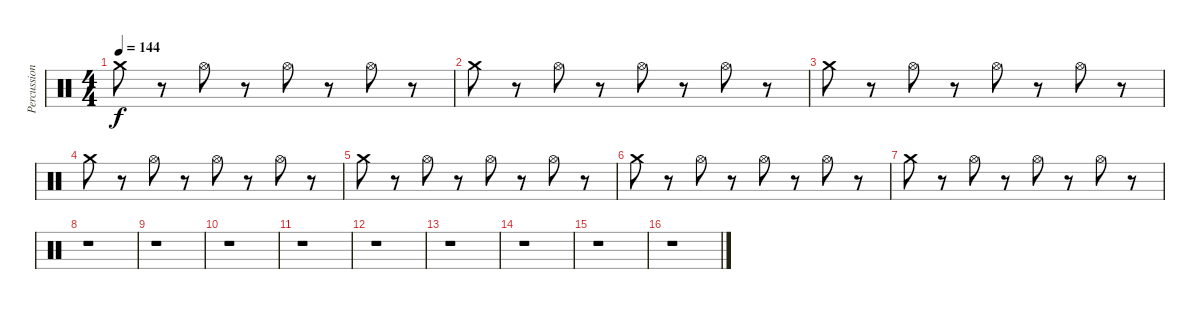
\track ("Percussions" "Percussion") {instrument percussion}
\staff {score}
\articulation defaults
\ts (4 4)
\tempo 144
\clef neutral
\ks c "Crash medium (hit)".8{dy f}
r.8 "Hi-Hat (open)".8 r.8 "Hi-Hat (open)".8 r.8 "Hi-Hat (open)".8 r.8 |
"Crash medium (hit)".8 r.8 "Hi-Hat (open)".8 r.8 "Hi-Hat (open)".8 r.8 "Hi-Hat (open)".8 r.8 |
"Crash medium (hit)".8 r.8 "Hi-Hat (open)".8 r.8 "Hi-Hat (open)".8 r.8 "Hi-Hat (open)".8 r.8 |
"Crash medium (hit)".8 r.8 "Hi-Hat (open)".8 r.8 "Hi-Hat (open)".8 r.8 "Hi-Hat (open)".8 r.8 |
"Crash medium (hit)".8 r.8 "Hi-Hat (open)".8 r.8 "Hi-Hat (open)".8 r.8 "Hi-Hat (open)".8 r.8 |
"Crash medium (hit)".8 r.8 "Hi-Hat (open)".8 r.8 "Hi-Hat (open)".8 r.8 "Hi-Hat (open)".8 r.8 |
"Crash medium (hit)".8 r.8 "Hi-Hat (open)".8 r.8 "Hi-Hat (open)".8 r.8 "Hi-Hat (open)".8 r.8 |
r.1 |
r.1 |
r.1 |
r.1 |
r.1 |
r.1 |
r.1 |
r.1 |
r.1
